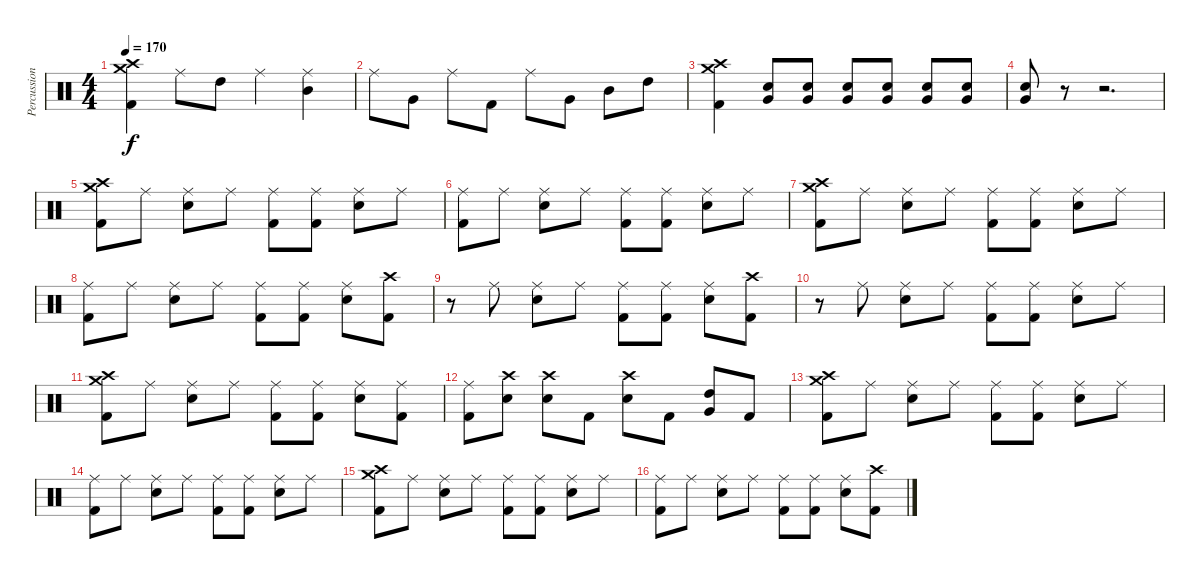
\track ("Percussion" "Percussion") {instrument percussion}
\staff {score}
\articulation defaults
\ts (4 4)
\tempo 170
\clef neutral
\ks c
("Crash medium (hit)" "Crash high (hit)" "Kick (hit) 2").4{dy f} "Ride (middle)".8 "High Tom (hit)".8 "Ride (middle)".4 ("Mid Tom (hit)" "Ride (middle)").4 |
"Ride (middle)".8 "Very Low Tom (hit)".8 "Ride (middle)".8 "Kick (hit) 2".8 "Ride (middle)".8 "Very Low Tom (hit)".8 "Mid Tom (hit)".8 "High Tom (hit)".8 |
("Crash medium (hit)" "Crash high (hit)" "Kick (hit) 2").4 ("Very Low Tom (hit)" "Snare (hit) 2").8 ("Very Low Tom (hit)" "Snare (hit) 2").8 ("Very Low Tom (hit)" "Snare (hit) 2").8 ("Very Low Tom (hit)" "Snare (hit) 2").8 ("Very Low Tom (hit)" "Snare (hit) 2").8 ("Very Low Tom (hit)" "Snare (hit) 2").8{txt ""} |
("Very Low Tom (hit)" "Snare (hit) 2").8 r.8 r.2{d} |
("Crash medium (hit)" "Crash high (hit)" "Kick (hit) 2").8 "Ride (middle)".8 ("Ride (middle)" "Snare (hit) 2").8 "Ride (middle)".8 ("Ride (middle)" "Kick (hit) 2").8 ("Ride (middle)" "Kick (hit) 2").8 ("Ride (middle)" "Snare (hit) 2").8 "Ride (middle)".8 |
("Ride (middle)" "Kick (hit) 2").8 "Ride (middle)".8 ("Ride (middle)" "Snare (hit) 2").8 "Ride (middle)".8 ("Ride (middle)" "Kick (hit) 2").8 ("Ride (middle)" "Kick (hit) 2").8 ("Ride (middle)" "Snare (hit) 2").8 "Ride (middle)".8 |
("Crash medium (hit)" "Crash high (hit)" "Kick (hit) 2").8 "Ride (middle)".8 ("Ride (middle)" "Snare (hit) 2").8 "Ride (middle)".8 ("Ride (middle)" "Kick (hit) 2").8 ("Ride (middle)" "Kick (hit) 2").8 ("Ride (middle)" "Snare (hit) 2").8 "Ride (middle)".8 |
("Ride (middle)" "Kick (hit) 2").8 "Ride (middle)".8 ("Ride (middle)" "Snare (hit) 2").8 "Ride (middle)".8 ("Ride (middle)" "Kick (hit) 2").8 ("Ride (middle)" "Kick (hit) 2").8 ("Ride (middle)" "Snare (hit) 2").8 ("Crash high (hit)" "Kick (hit) 2").8 |
r.8 "Ride (middle)".8 ("Ride (middle)" "Snare (hit) 2").8 "Ride (middle)".8 ("Ride (middle)" "Kick (hit) 2").8 ("Ride (middle)" "Kick (hit) 2").8 ("Ride (middle)" "Snare (hit) 2").8 ("Crash high (hit)" "Kick (hit) 2").8 |
r.8 "Ride (middle)".8 ("Ride (middle)" "Snare (hit) 2").8 "Ride (middle)".8 ("Ride (middle)" "Kick (hit) 2").8 ("Ride (middle)" "Kick (hit) 2").8 ("Ride (middle)" "Snare (hit) 2").8 "Ride (middle)".8 |
("Crash medium (hit)" "Crash high (hit)" "Kick (hit) 2").8 "Ride (middle)".8 ("Ride (middle)" "Snare (hit) 2").8 "Ride (middle)".8 ("Ride (middle)" "Kick (hit) 2").8 ("Ride (middle)" "Kick (hit) 2").8 ("Ride (middle)" "Snare (hit) 2").8 ("Ride (middle)" "Kick (hit) 2").8 |
("Ride (middle)" "Kick (hit) 2").8 ("Crash high (hit)" "Snare (hit) 2").8 ("Crash high (hit)" "Snare (hit) 2").8 "Kick (hit) 2".8 ("Crash high (hit)" "Snare (hit) 2").8 "Kick (hit) 2".8 ("High Tom (hit)" "Very Low Tom (hit)").8 "Kick (hit) 2".8 |
("Crash medium (hit)" "Crash high (hit)" "Kick (hit) 2").8 "Ride (middle)".8 ("Ride (middle)" "Snare (hit) 2").8 "Ride (middle)".8 ("Ride (middle)" "Kick (hit) 2").8 ("Ride (middle)" "Kick (hit) 2").8 ("Ride (middle)" "Snare (hit) 2").8 "Ride (middle)".8 |
("Ride (middle)" "Kick (hit) 2").8 "Ride (middle)".8 ("Ride (middle)" "Snare (hit) 2").8 "Ride (middle)".8 ("Ride (middle)" "Kick (hit) 2").8 ("Ride (middle)" "Kick (hit) 2").8 ("Ride (middle)" "Snare (hit) 2").8 "Ride (middle)".8 |
("Crash medium (hit)" "Crash high (hit)" "Kick (hit) 2").8 "Ride (middle)".8 ("Ride (middle)" "Snare (hit) 2").8 "Ride (middle)".8 ("Ride (middle)" "Kick (hit) 2").8 ("Ride (middle)" "Kick (hit) 2").8 ("Ride (middle)" "Snare (hit) 2").8 "Ride (middle)".8 |
("Ride (middle)" "Kick (hit) 2").8 "Ride (middle)".8 ("Ride (middle)" "Snare (hit) 2").8 "Ride (middle)".8 ("Ride (middle)" "Kick (hit) 2").8 ("Ride (middle)" "Kick (hit) 2").8 ("Ride (middle)" "Snare (hit) 2").8 ("Crash high (hit)" "Kick (hit) 2").8
